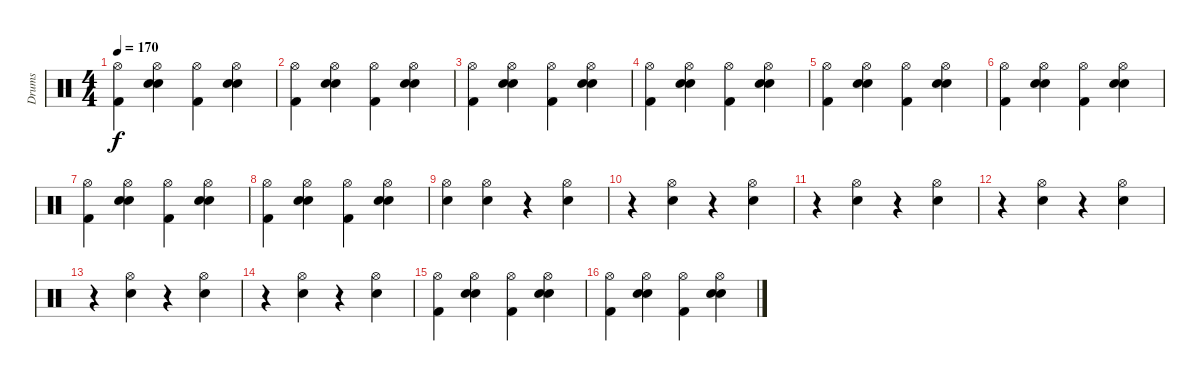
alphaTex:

\track ("Drums" "Drums") {instrument percussion}
\staff {score}
\articulation defaults
\ts (4 4)
\tempo 170
\clef neutral
\ks c
("Hi-Hat (open)" "Kick (hit) 2").4{dy f} ("Hi-Hat (open)" "Electric Snare (hit)" "Hand Clap (hit)").4 ("Hi-Hat (open)" "Kick (hit) 2").4 ("Hi-Hat (open)" "Electric Snare (hit)" "Hand Clap (hit)").4 |
("Hi-Hat (open)" "Kick (hit) 2").4 ("Hi-Hat (open)" "Electric Snare (hit)" "Hand Clap (hit)").4 ("Hi-Hat (open)" "Kick (hit) 2").4 ("Hi-Hat (open)" "Electric Snare (hit)" "Hand Clap (hit)").4 |
("Hi-Hat (open)" "Kick (hit) 2").4 ("Hi-Hat (open)" "Electric Snare (hit)" "Hand Clap (hit)").4 ("Hi-Hat (open)" "Kick (hit) 2").4 ("Hi-Hat (open)" "Electric Snare (hit)" "Hand Clap (hit)").4 |
("Hi-Hat (open)" "Kick (hit) 2").4 ("Hi-Hat (open)" "Electric Snare (hit)" "Hand Clap (hit)").4 ("Hi-Hat (open)" "Kick (hit) 2").4 ("Hi-Hat (open)" "Electric Snare (hit)" "Hand Clap (hit)").4 |
("Hi-Hat (open)" "Kick (hit) 2").4 ("Hi-Hat (open)" "Electric Snare (hit)" "Hand Clap (hit)").4 ("Hi-Hat (open)" "Kick (hit) 2").4 ("Hi-Hat (open)" "Electric Snare (hit)" "Hand Clap (hit)").4 |
("Hi-Hat (open)" "Kick (hit) 2").4 ("Hi-Hat (open)" "Electric Snare (hit)" "Hand Clap (hit)").4 ("Hi-Hat (open)" "Kick (hit) 2").4 ("Hi-Hat (open)" "Electric Snare (hit)" "Hand Clap (hit)").4 |
("Hi-Hat (open)" "Kick (hit) 2").4 ("Hi-Hat (open)" "Electric Snare (hit)" "Hand Clap (hit)").4 ("Hi-Hat (open)" "Kick (hit) 2").4 ("Hi-Hat (open)" "Electric Snare (hit)" "Hand Clap (hit)").4 |
("Hi-Hat (open)" "Kick (hit) 2").4 ("Hi-Hat (open)" "Electric Snare (hit)" "Hand Clap (hit)").4 ("Hi-Hat (open)" "Kick (hit) 2").4 ("Hi-Hat (open)" "Electric Snare (hit)" "Hand Clap (hit)").4 |
("Hi-Hat (open)" "Electric Snare (hit)").4 ("Hi-Hat (open)" "Hand Clap (hit)").4 r.4 ("Hi-Hat (open)" "Hand Clap (hit)").4 |
r.4 ("Hi-Hat (open)" "Hand Clap (hit)").4 r.4 ("Hi-Hat (open)" "Hand Clap (hit)").4 |
r.4 ("Hi-Hat (open)" "Hand Clap (hit)").4 r.4 ("Hi-Hat (open)" "Hand Clap (hit)").4 |
r.4 ("Hi-Hat (open)" "Hand Clap (hit)").4 r.4 ("Hi-Hat (open)" "Hand Clap (hit)").4 |
r.4 ("Hi-Hat (open)" "Hand Clap (hit)").4 r.4 ("Hi-Hat (open)" "Hand Clap (hit)").4 |
r.4 ("Hi-Hat (open)" "Hand Clap (hit)").4 r.4 ("Hi-Hat (open)" "Hand Clap (hit)").4 |
("Hi-Hat (open)" "Kick (hit) 2").4 ("Hi-Hat (open)" "Electric Snare (hit)" "Hand Clap (hit)").4 ("Hi-Hat (open)" "Kick (hit) 2").4 ("Hi-Hat (open)" "Electric Snare (hit)" "Hand Clap (hit)").4 |
("Hi-Hat (open)" "Kick (hit) 2").4 ("Hi-Hat (open)" "Electric Snare (hit)" "Hand Clap (hit)").4 ("Hi-Hat (open)" "Kick (hit) 2").4 ("Hi-Hat (open)" "Electric Snare (hit)" "Hand Clap (hit)").4
